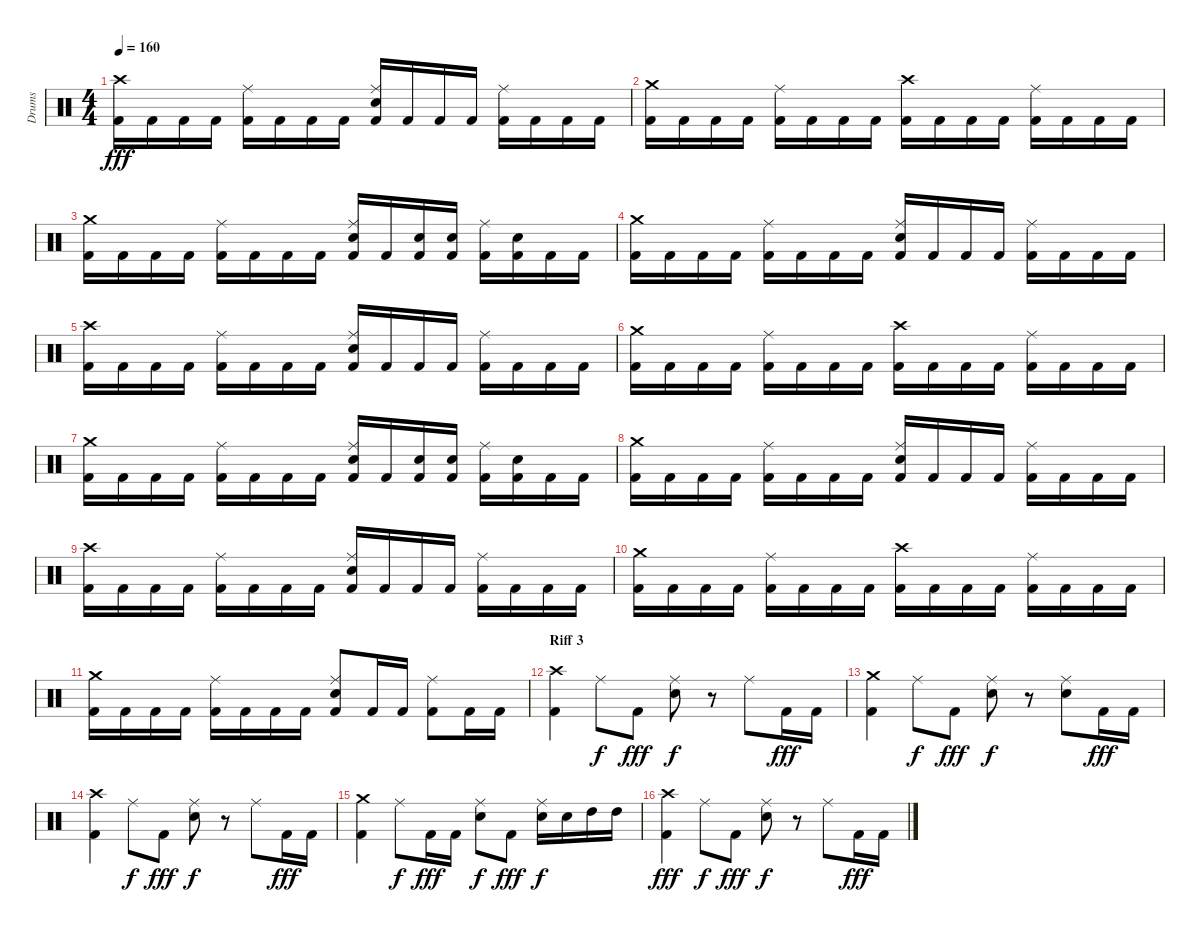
\track ("Drums" "Drums") {instrument percussion}
\staff {score}
\articulation defaults
\ts (4 4)
\tempo 160
\clef neutral
\ks c
("Crash high (hit)" "Kick (hit) 2").16{dy fff} "Kick (hit) 2".16 "Kick (hit) 2".16 "Kick (hit) 2".16 ("Ride (middle)" "Kick (hit) 2").16 "Kick (hit) 2".16 "Kick (hit) 2".16 "Kick (hit) 2".16 ("Ride (middle)" "Electric Snare (hit)" "Kick (hit) 2").16 "Kick (hit) 2".16 "Kick (hit) 2".16 "Kick (hit) 2".16 ("Ride (middle)" "Kick (hit) 2").16 "Kick (hit) 2".16 "Kick (hit) 2".16 "Kick (hit) 2".16 |
("Crash medium (hit)" "Kick (hit) 2").16 "Kick (hit) 2".16 "Kick (hit) 2".16 "Kick (hit) 2".16 ("Ride (middle)" "Kick (hit) 2").16 "Kick (hit) 2".16 "Kick (hit) 2".16 "Kick (hit) 2".16 ("Crash high (hit)" "Kick (hit) 2").16 "Kick (hit) 2".16 "Kick (hit) 2".16 "Kick (hit) 2".16 ("Ride (middle)" "Kick (hit) 2").16 "Kick (hit) 2".16 "Kick (hit) 2".16 "Kick (hit) 2".16 |
("Crash medium (hit)" "Kick (hit) 2").16 "Kick (hit) 2".16 "Kick (hit) 2".16 "Kick (hit) 2".16 ("Ride (middle)" "Kick (hit) 2").16 "Kick (hit) 2".16 "Kick (hit) 2".16 "Kick (hit) 2".16 ("Ride (middle)" "Electric Snare (hit)" "Kick (hit) 2").16 "Kick (hit) 2".16 ("Electric Snare (hit)" "Kick (hit) 2").16 ("Electric Snare (hit)" "Kick (hit) 2").16 ("Ride (middle)" "Kick (hit) 2").16 ("Electric Snare (hit)" "Kick (hit) 2").16 "Kick (hit) 2".16 "Kick (hit) 2".16 |
("Crash medium (hit)" "Kick (hit) 2").16 "Kick (hit) 2".16 "Kick (hit) 2".16 "Kick (hit) 2".16 ("Ride (middle)" "Kick (hit) 2").16 "Kick (hit) 2".16 "Kick (hit) 2".16 "Kick (hit) 2".16 ("Ride (middle)" "Electric Snare (hit)" "Kick (hit) 2").16 "Kick (hit) 2".16 "Kick (hit) 2".16 "Kick (hit) 2".16 ("Ride (middle)" "Kick (hit) 2").16 "Kick (hit) 2".16 "Kick (hit) 2".16 "Kick (hit) 2".16 |
("Crash high (hit)" "Kick (hit) 2").16 "Kick (hit) 2".16 "Kick (hit) 2".16 "Kick (hit) 2".16 ("Ride (middle)" "Kick (hit) 2").16 "Kick (hit) 2".16 "Kick (hit) 2".16 "Kick (hit) 2".16 ("Ride (middle)" "Electric Snare (hit)" "Kick (hit) 2").16 "Kick (hit) 2".16 "Kick (hit) 2".16 "Kick (hit) 2".16 ("Ride (middle)" "Kick (hit) 2").16 "Kick (hit) 2".16 "Kick (hit) 2".16 "Kick (hit) 2".16 |
("Crash medium (hit)" "Kick (hit) 2").16 "Kick (hit) 2".16 "Kick (hit) 2".16 "Kick (hit) 2".16 ("Ride (middle)" "Kick (hit) 2").16 "Kick (hit) 2".16 "Kick (hit) 2".16 "Kick (hit) 2".16 ("Crash high (hit)" "Kick (hit) 2").16 "Kick (hit) 2".16 "Kick (hit) 2".16 "Kick (hit) 2".16 ("Ride (middle)" "Kick (hit) 2").16 "Kick (hit) 2".16 "Kick (hit) 2".16 "Kick (hit) 2".16 |
("Crash medium (hit)" "Kick (hit) 2").16 "Kick (hit) 2".16 "Kick (hit) 2".16 "Kick (hit) 2".16 ("Ride (middle)" "Kick (hit) 2").16 "Kick (hit) 2".16 "Kick (hit) 2".16 "Kick (hit) 2".16 ("Ride (middle)" "Electric Snare (hit)" "Kick (hit) 2").16 "Kick (hit) 2".16 ("Electric Snare (hit)" "Kick (hit) 2").16 ("Electric Snare (hit)" "Kick (hit) 2").16 ("Ride (middle)" "Kick (hit) 2").16 ("Electric Snare (hit)" "Kick (hit) 2").16 "Kick (hit) 2".16 "Kick (hit) 2".16 |
("Crash medium (hit)" "Kick (hit) 2").16 "Kick (hit) 2".16 "Kick (hit) 2".16 "Kick (hit) 2".16 ("Ride (middle)" "Kick (hit) 2").16 "Kick (hit) 2".16 "Kick (hit) 2".16 "Kick (hit) 2".16 ("Ride (middle)" "Electric Snare (hit)" "Kick (hit) 2").16 "Kick (hit) 2".16 "Kick (hit) 2".16 "Kick (hit) 2".16 ("Ride (middle)" "Kick (hit) 2").16 "Kick (hit) 2".16 "Kick (hit) 2".16 "Kick (hit) 2".16 |
("Crash high (hit)" "Kick (hit) 2").16 "Kick (hit) 2".16 "Kick (hit) 2".16 "Kick (hit) 2".16 ("Ride (middle)" "Kick (hit) 2").16 "Kick (hit) 2".16 "Kick (hit) 2".16 "Kick (hit) 2".16 ("Ride (middle)" "Electric Snare (hit)" "Kick (hit) 2").16 "Kick (hit) 2".16 "Kick (hit) 2".16 "Kick (hit) 2".16 ("Ride (middle)" "Kick (hit) 2").16 "Kick (hit) 2".16 "Kick (hit) 2".16 "Kick (hit) 2".16 |
("Crash medium (hit)" "Kick (hit) 2").16 "Kick (hit) 2".16 "Kick (hit) 2".16 "Kick (hit) 2".16 ("Ride (middle)" "Kick (hit) 2").16 "Kick (hit) 2".16 "Kick (hit) 2".16 "Kick (hit) 2".16 ("Crash high (hit)" "Kick (hit) 2").16 "Kick (hit) 2".16 "Kick (hit) 2".16 "Kick (hit) 2".16 ("Ride (middle)" "Kick (hit) 2").16 "Kick (hit) 2".16 "Kick (hit) 2".16 "Kick (hit) 2".16 |
("Crash medium (hit)" "Kick (hit) 2").16 "Kick (hit) 2".16 "Kick (hit) 2".16 "Kick (hit) 2".16 ("Ride (middle)" "Kick (hit) 2").16 "Kick (hit) 2".16 "Kick (hit) 2".16 "Kick (hit) 2".16 ("Ride (middle)" "Electric Snare (hit)" "Kick (hit) 2").8 "Kick (hit) 2".16 "Kick (hit) 2".16 ("Ride (middle)" "Kick (hit) 2").8 "Kick (hit) 2".16 "Kick (hit) 2".16 |
\section ("" "Riff 3")
("Crash high (hit)" "Kick (hit) 2").4 "Ride (middle)".8{dy f} "Kick (hit) 2".8{dy fff} ("Ride (middle)" "Electric Snare (hit)").8{dy f} r.8 "Ride (middle)".8 "Kick (hit) 2".16{dy fff} "Kick (hit) 2".16 |
("Crash medium (hit)" "Kick (hit) 2").4 "Ride (middle)".8{dy f} "Kick (hit) 2".8{dy fff} ("Ride (middle)" "Electric Snare (hit)").8{dy f} r.8 ("Ride (middle)" "Electric Snare (hit)").8 "Kick (hit) 2".16{dy fff} "Kick (hit) 2".16 |
("Crash high (hit)" "Kick (hit) 2").4 "Ride (middle)".8{dy f} "Kick (hit) 2".8{dy fff} ("Ride (middle)" "Electric Snare (hit)").8{dy f} r.8 "Ride (middle)".8 "Kick (hit) 2".16{dy fff} "Kick (hit) 2".16 |
("Crash medium (hit)" "Kick (hit) 2").4 "Ride (middle)".8{dy f} "Kick (hit) 2".16{dy fff} "Kick (hit) 2".16 ("Ride (middle)" "Electric Snare (hit)").8{dy f} "Kick (hit) 2".8{dy fff} ("Ride (middle)" "Electric Snare (hit)").16{dy f} "Electric Snare (hit)".16 "High Tom (hit)".16 "High Tom (hit)".16 |
("Crash high (hit)" "Kick (hit) 2").4{dy fff} "Ride (middle)".8{dy f} "Kick (hit) 2".8{dy fff} ("Ride (middle)" "Electric Snare (hit)").8{dy f} r.8 "Ride (middle)".8 "Kick (hit) 2".16{dy fff} "Kick (hit) 2".16
